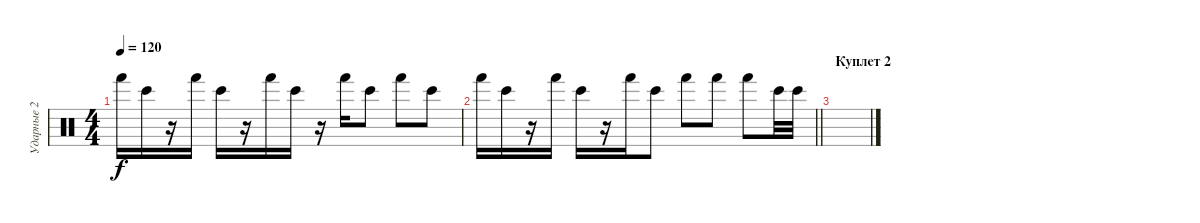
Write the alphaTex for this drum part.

\track ("Ударные 2" "Ударные 2") {instrument percussion}
\staff {score}
\articulation defaults
\ts (4 4)
\tempo 120
\clef neutral
\ks c "Hand (hit)".16{dy f} "Bongo High (hit)".16
r.16 "Hand (hit)".16 "Bongo High (hit)".16 r.16 "Hand (hit)".16 "Bongo High (hit)".16 r.16 "Hand (hit)".16 "Bongo High (hit)".8 "Hand (hit)".8 "Bongo High (hit)".8 |
\barLineRight lightlight "Hand (hit)".16 "Bongo High (hit)".16
r.16 "Hand (hit)".16 "Bongo High (hit)".16 r.16 "Hand (hit)".16 "Bongo High (hit)".8 "Hand (hit)".8 "Hand (hit)".8 "Hand (hit)".8 "Bongo High (hit)".32 "Bongo High (hit)".32 |
\section ("" "Куплет 2")
